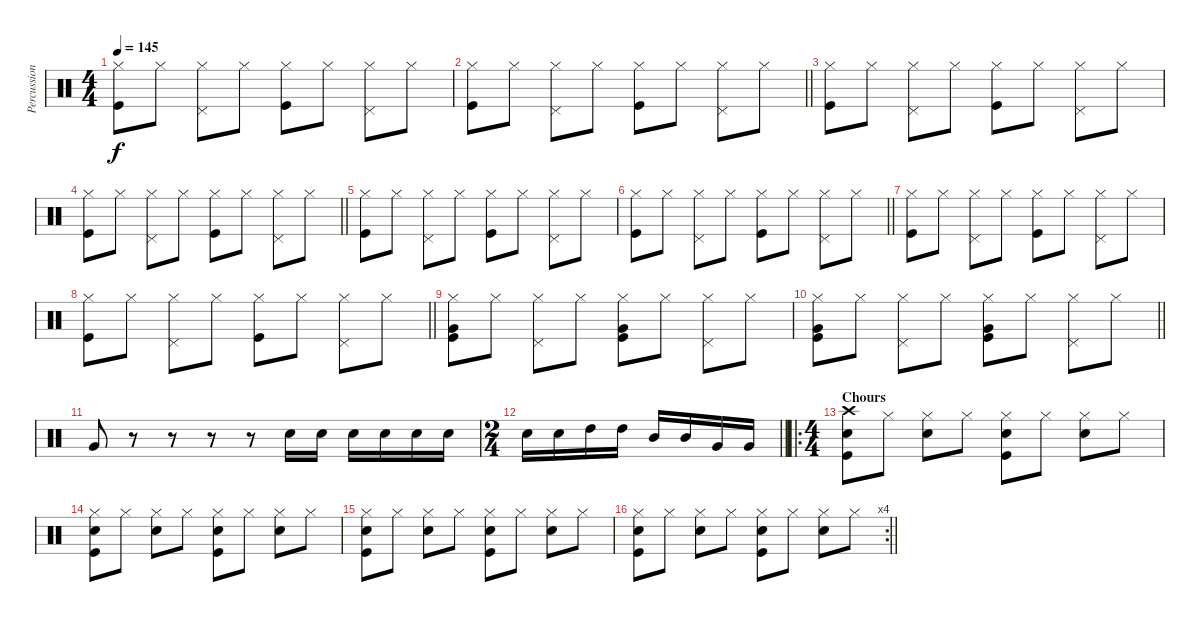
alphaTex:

\track ("Percussion" "Percussion") {instrument percussion}
\staff {score}
\articulation defaults
\ts (4 4)
\tempo 145
\clef neutral
\ks c
("Kick (hit)" "Hi-Hat (closed)").8{dy f} "Hi-Hat (closed)".8 ("Hi-Hat (closed)" "Pedal Hi-Hat (hit)").8 "Hi-Hat (closed)".8 ("Hi-Hat (closed)" "Kick (hit)").8 "Hi-Hat (closed)".8 ("Hi-Hat (closed)" "Pedal Hi-Hat (hit)").8 "Hi-Hat (closed)".8 |
\barLineRight lightlight
("Kick (hit)" "Hi-Hat (closed)").8 "Hi-Hat (closed)".8 ("Hi-Hat (closed)" "Pedal Hi-Hat (hit)").8 "Hi-Hat (closed)".8 ("Hi-Hat (closed)" "Kick (hit)").8 "Hi-Hat (closed)".8 ("Hi-Hat (closed)" "Pedal Hi-Hat (hit)").8 "Hi-Hat (closed)".8 |
("Kick (hit)" "Hi-Hat (closed)").8 "Hi-Hat (closed)".8 ("Hi-Hat (closed)" "Pedal Hi-Hat (hit)").8 "Hi-Hat (closed)".8 ("Hi-Hat (closed)" "Kick (hit)").8 "Hi-Hat (closed)".8 ("Hi-Hat (closed)" "Pedal Hi-Hat (hit)").8 "Hi-Hat (closed)".8 |
\barLineRight lightlight
("Kick (hit)" "Hi-Hat (closed)").8 "Hi-Hat (closed)".8 ("Hi-Hat (closed)" "Pedal Hi-Hat (hit)").8 "Hi-Hat (closed)".8 ("Hi-Hat (closed)" "Kick (hit)").8 "Hi-Hat (closed)".8 ("Hi-Hat (closed)" "Pedal Hi-Hat (hit)").8 "Hi-Hat (closed)".8 |
("Kick (hit)" "Hi-Hat (closed)").8 "Hi-Hat (closed)".8 ("Hi-Hat (closed)" "Pedal Hi-Hat (hit)").8 "Hi-Hat (closed)".8 ("Hi-Hat (closed)" "Kick (hit)").8 "Hi-Hat (closed)".8 ("Hi-Hat (closed)" "Pedal Hi-Hat (hit)").8 "Hi-Hat (closed)".8 |
\barLineRight lightlight
("Kick (hit)" "Hi-Hat (closed)").8 "Hi-Hat (closed)".8 ("Hi-Hat (closed)" "Pedal Hi-Hat (hit)").8 "Hi-Hat (closed)".8 ("Hi-Hat (closed)" "Kick (hit)").8 "Hi-Hat (closed)".8 ("Hi-Hat (closed)" "Pedal Hi-Hat (hit)").8 "Hi-Hat (closed)".8 |
("Kick (hit)" "Hi-Hat (closed)").8 "Hi-Hat (closed)".8 ("Hi-Hat (closed)" "Pedal Hi-Hat (hit)").8 "Hi-Hat (closed)".8 ("Hi-Hat (closed)" "Kick (hit)").8 "Hi-Hat (closed)".8 ("Hi-Hat (closed)" "Pedal Hi-Hat (hit)").8 "Hi-Hat (closed)".8 |
\barLineRight lightlight
("Kick (hit)" "Hi-Hat (closed)").8 "Hi-Hat (closed)".8 ("Hi-Hat (closed)" "Pedal Hi-Hat (hit)").8 "Hi-Hat (closed)".8 ("Hi-Hat (closed)" "Kick (hit)").8 "Hi-Hat (closed)".8 ("Hi-Hat (closed)" "Pedal Hi-Hat (hit)").8 "Hi-Hat (closed)".8 |
("Very Low Tom (hit)" "Kick (hit)" "Hi-Hat (closed)").8 "Hi-Hat (closed)".8 ("Hi-Hat (closed)" "Pedal Hi-Hat (hit)").8 "Hi-Hat (closed)".8 ("Hi-Hat (closed)" "Kick (hit)" "Very Low Tom (hit)").8 "Hi-Hat (closed)".8 ("Hi-Hat (closed)" "Pedal Hi-Hat (hit)").8 "Hi-Hat (closed)".8 |
\barLineRight lightlight
("Kick (hit)" "Hi-Hat (closed)" "Very Low Tom (hit)").8 "Hi-Hat (closed)".8 ("Hi-Hat (closed)" "Pedal Hi-Hat (hit)").8 "Hi-Hat (closed)".8 ("Hi-Hat (closed)" "Kick (hit)" "Very Low Tom (hit)").8 "Hi-Hat (closed)".8 ("Hi-Hat (closed)" "Pedal Hi-Hat (hit)").8 "Hi-Hat (closed)".8 |
"Very Low Tom (hit)".8 r.8 r.8 r.8 r.8 "Electric Snare (hit)".16 "Electric Snare (hit)".16 "Electric Snare (hit)".16 "Electric Snare (hit)".16 "Electric Snare (hit)".16 "Electric Snare (hit)".16 |
\ts (2 4)
\barLineRight lightlight "Electric Snare (hit)".16 "Electric Snare (hit)".16 "High Tom (hit)".16 "High Tom (hit)".16 "Mid Tom (hit)".16 "Mid Tom (hit)".16 "Very Low Tom (hit)".16 "Very Low Tom (hit)".16
|
\ro
\ts (4 4)
\section ("" "Chours")
("Electric Snare (hit)" "Kick (hit)" "Crash high (hit)").8 "Hi-Hat (closed)".8 ("Hi-Hat (closed)" "Electric Snare (hit)").8 "Hi-Hat (closed)".8 ("Hi-Hat (closed)" "Kick (hit)" "Electric Snare (hit)").8 "Hi-Hat (closed)".8 ("Hi-Hat (closed)" "Electric Snare (hit)").8 "Hi-Hat (closed)".8 |
("Electric Snare (hit)" "Kick (hit)" "Hi-Hat (closed)").8 "Hi-Hat (closed)".8 ("Hi-Hat (closed)" "Electric Snare (hit)").8 "Hi-Hat (closed)".8 ("Hi-Hat (closed)" "Kick (hit)" "Electric Snare (hit)").8 "Hi-Hat (closed)".8 ("Hi-Hat (closed)" "Electric Snare (hit)").8 "Hi-Hat (closed)".8 |
("Electric Snare (hit)" "Kick (hit)" "Hi-Hat (closed)").8 "Hi-Hat (closed)".8 ("Hi-Hat (closed)" "Electric Snare (hit)").8 "Hi-Hat (closed)".8 ("Hi-Hat (closed)" "Kick (hit)" "Electric Snare (hit)").8 "Hi-Hat (closed)".8 ("Hi-Hat (closed)" "Electric Snare (hit)").8 "Hi-Hat (closed)".8 |
\rc 4
\barLineRight lightlight
("Electric Snare (hit)" "Kick (hit)" "Hi-Hat (closed)").8 "Hi-Hat (closed)".8 ("Hi-Hat (closed)" "Electric Snare (hit)").8 "Hi-Hat (closed)".8 ("Hi-Hat (closed)" "Kick (hit)" "Electric Snare (hit)").8 "Hi-Hat (closed)".8 ("Hi-Hat (closed)" "Electric Snare (hit)").8 "Hi-Hat (closed)".8
